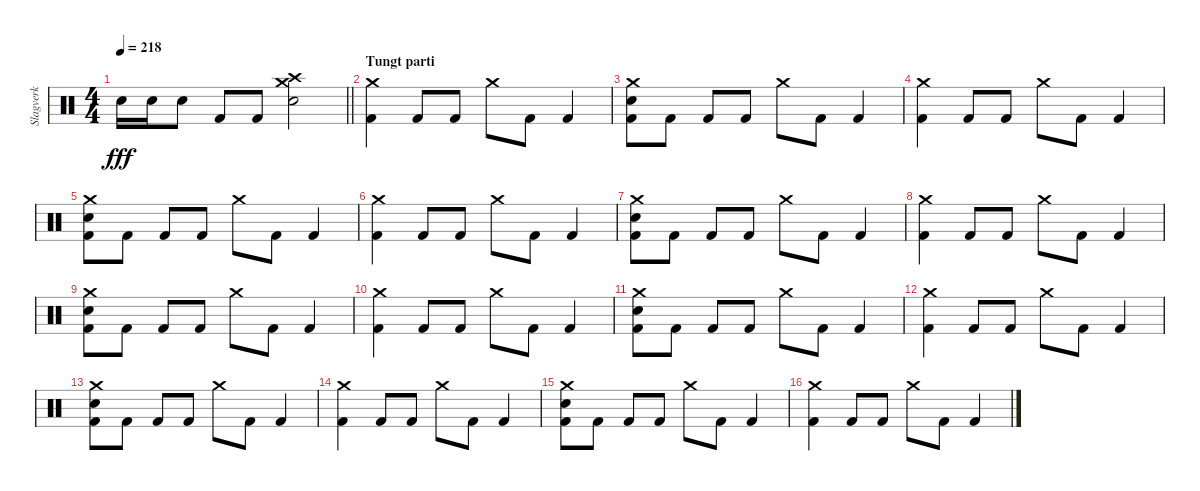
\track ("Slagverk" "Slagverk") {instrument percussion}
\staff {score}
\articulation defaults
\ts (4 4)
\tempo 218
\clef neutral
\barLineRight lightlight
\ks c "Electric Snare (hit)".16{dy fff} "Electric Snare (hit)".16 "Electric Snare (hit)".8 "Kick (hit) 2".8 "Kick (hit) 2".8
("Crash high (hit)" "Crash medium (hit)" "Snare (hit) 2").2 |
\section ("" "Tungt parti")
("Crash medium (hit)" "Kick (hit) 2").4 "Kick (hit) 2".8 "Kick (hit) 2".8 "Crash medium (hit)".8 "Kick (hit) 2".8 "Kick (hit) 2".4 |
("Crash medium (hit)" "Electric Snare (hit)" "Kick (hit) 2").8 "Kick (hit) 2".8 "Kick (hit) 2".8 "Kick (hit) 2".8 "Crash medium (hit)".8 "Kick (hit) 2".8 "Kick (hit) 2".4 |
("Crash medium (hit)" "Kick (hit) 2").4 "Kick (hit) 2".8 "Kick (hit) 2".8 "Crash medium (hit)".8 "Kick (hit) 2".8 "Kick (hit) 2".4 |
("Crash medium (hit)" "Electric Snare (hit)" "Kick (hit) 2").8 "Kick (hit) 2".8 "Kick (hit) 2".8 "Kick (hit) 2".8 "Crash medium (hit)".8 "Kick (hit) 2".8 "Kick (hit) 2".4 |
("Crash medium (hit)" "Kick (hit) 2").4 "Kick (hit) 2".8 "Kick (hit) 2".8 "Crash medium (hit)".8 "Kick (hit) 2".8 "Kick (hit) 2".4 |
("Crash medium (hit)" "Electric Snare (hit)" "Kick (hit) 2").8 "Kick (hit) 2".8 "Kick (hit) 2".8 "Kick (hit) 2".8 "Crash medium (hit)".8 "Kick (hit) 2".8 "Kick (hit) 2".4 |
("Crash medium (hit)" "Kick (hit) 2").4 "Kick (hit) 2".8 "Kick (hit) 2".8 "Crash medium (hit)".8 "Kick (hit) 2".8 "Kick (hit) 2".4 |
("Crash medium (hit)" "Electric Snare (hit)" "Kick (hit) 2").8 "Kick (hit) 2".8 "Kick (hit) 2".8 "Kick (hit) 2".8 "Crash medium (hit)".8 "Kick (hit) 2".8 "Kick (hit) 2".4 |
("Crash medium (hit)" "Kick (hit) 2").4 "Kick (hit) 2".8 "Kick (hit) 2".8 "Crash medium (hit)".8 "Kick (hit) 2".8 "Kick (hit) 2".4 |
("Crash medium (hit)" "Electric Snare (hit)" "Kick (hit) 2").8 "Kick (hit) 2".8 "Kick (hit) 2".8 "Kick (hit) 2".8 "Crash medium (hit)".8 "Kick (hit) 2".8 "Kick (hit) 2".4 |
("Crash medium (hit)" "Kick (hit) 2").4 "Kick (hit) 2".8 "Kick (hit) 2".8 "Crash medium (hit)".8 "Kick (hit) 2".8 "Kick (hit) 2".4 |
("Crash medium (hit)" "Electric Snare (hit)" "Kick (hit) 2").8 "Kick (hit) 2".8 "Kick (hit) 2".8 "Kick (hit) 2".8 "Crash medium (hit)".8 "Kick (hit) 2".8 "Kick (hit) 2".4 |
("Crash medium (hit)" "Kick (hit) 2").4 "Kick (hit) 2".8 "Kick (hit) 2".8 "Crash medium (hit)".8 "Kick (hit) 2".8 "Kick (hit) 2".4 |
("Crash medium (hit)" "Electric Snare (hit)" "Kick (hit) 2").8 "Kick (hit) 2".8 "Kick (hit) 2".8 "Kick (hit) 2".8 "Crash medium (hit)".8 "Kick (hit) 2".8 "Kick (hit) 2".4 |
("Crash medium (hit)" "Kick (hit) 2").4 "Kick (hit) 2".8 "Kick (hit) 2".8 "Crash medium (hit)".8 "Kick (hit) 2".8 "Kick (hit) 2".4
